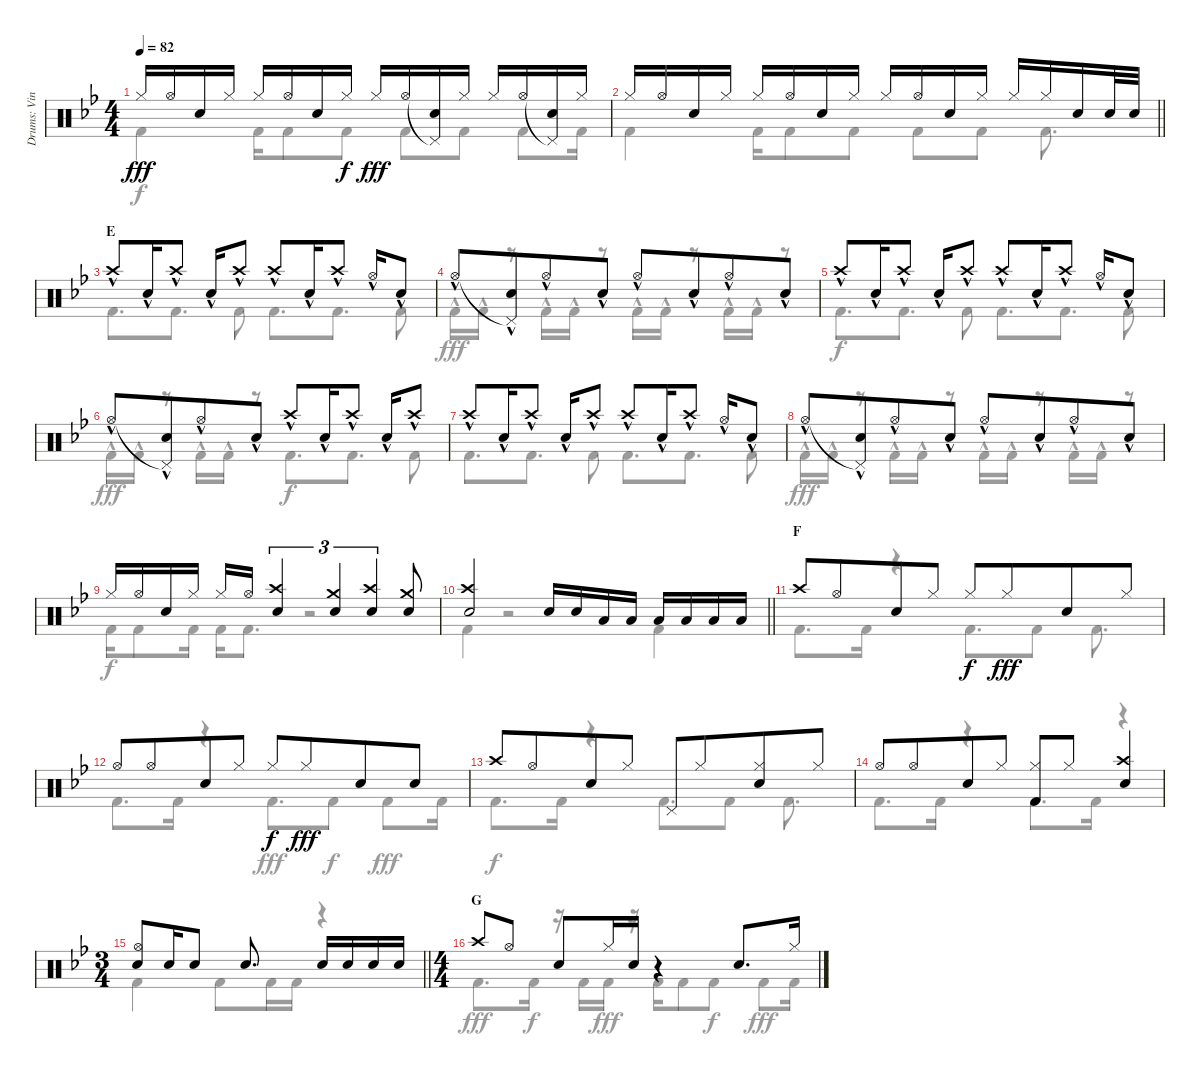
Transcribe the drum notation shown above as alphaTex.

\track ("Drums: Vinny" "Drums: Vin") {instrument percussion}
\staff {score}
\articulation defaults
\voice
\ts (4 4)
\tempo 82
\clef neutral
\ks bb "Hi-Hat (closed)".16{dy fff} "Hi-Hat (open)".16 "Snare (hit) 2".16 "Hi-Hat (closed)".16 "Hi-Hat (closed)".16 "Hi-Hat (open)".16 "Snare (hit) 2".16 "Hi-Hat (closed)".16{dy f} "Hi-Hat (closed)".16{dy fff} "Hi-Hat (open)".16
("Pedal Hi-Hat (hit)"{t} "Snare (hit) 2").16 "Hi-Hat (closed)".16 "Hi-Hat (closed)".16 "Hi-Hat (open)".16 ("Pedal Hi-Hat (hit)"{t} "Snare (hit) 2").16 "Hi-Hat (closed)".16 |
\barLineRight lightlight "Hi-Hat (closed)".16 "Hi-Hat (open)".16 "Snare (hit) 2".16 "Hi-Hat (closed)".16 "Hi-Hat (closed)".16 "Hi-Hat (open)".16 "Snare (hit) 2".16 "Hi-Hat (closed)".16 "Hi-Hat (closed)".16 "Hi-Hat (open)".16 "Snare (hit) 2".16 "Hi-Hat (closed)".16 "Hi-Hat (closed)".16 "Hi-Hat (closed)".16 "Snare (hit) 2".16 "Snare (hit) 2".32 "Snare (hit) 2".32
|
\section ("" "E")
"Crash high (hit)"{hac}.8 "Snare (hit) 2"{hac}.16 "Crash high (hit)"{hac}.8 "Snare (hit) 2"{hac}.16 "Crash high (hit)"{hac}.8 "Crash high (hit)"{hac}.8 "Snare (hit) 2"{hac}.16 "Crash high (hit)"{hac}.8 "Hi-Hat (open)"{hac}.16 "Snare (hit) 2"{hac}.8 |
"Hi-Hat (open)"{hac}.8 ("Pedal Hi-Hat (hit)"{t} "Snare (hit) 2"{hac}).8{beam merge} "Hi-Hat (open)"{hac}.8 "Snare (hit) 2"{hac}.8 "Hi-Hat (open)"{hac}.8 "Snare (hit) 2"{hac}.8{beam merge} "Hi-Hat (open)"{hac}.8 "Snare (hit) 2"{hac}.8 |
"Crash high (hit)"{hac}.8 "Snare (hit) 2"{hac}.16 "Crash high (hit)"{hac}.8 "Snare (hit) 2"{hac}.16 "Crash high (hit)"{hac}.8 "Crash high (hit)"{hac}.8 "Snare (hit) 2"{hac}.16 "Crash high (hit)"{hac}.8 "Hi-Hat (open)"{hac}.16 "Snare (hit) 2"{hac}.8 |
"Hi-Hat (open)"{hac}.8 ("Pedal Hi-Hat (hit)"{t} "Snare (hit) 2"{hac}).8{beam merge} "Hi-Hat (open)"{hac}.8 "Snare (hit) 2"{hac}.8 "Crash high (hit)"{hac}.8 "Snare (hit) 2"{hac}.16 "Crash high (hit)"{hac}.8 "Snare (hit) 2"{hac}.16 "Crash high (hit)"{hac}.8 |
"Crash high (hit)"{hac}.8 "Snare (hit) 2"{hac}.16 "Crash high (hit)"{hac}.8 "Snare (hit) 2"{hac}.16 "Crash high (hit)"{hac}.8 "Crash high (hit)"{hac}.8 "Snare (hit) 2"{hac}.16 "Crash high (hit)"{hac}.8 "Hi-Hat (open)"{hac}.16 "Snare (hit) 2"{hac}.8 |
"Hi-Hat (open)"{hac}.8 ("Pedal Hi-Hat (hit)"{t} "Snare (hit) 2"{hac}).8{beam merge} "Hi-Hat (open)"{hac}.8 "Snare (hit) 2"{hac}.8 "Hi-Hat (open)"{hac}.8 "Snare (hit) 2"{hac}.8{beam merge} "Hi-Hat (open)"{hac}.8 "Snare (hit) 2"{hac}.8 |
"Hi-Hat (closed)".16 "Hi-Hat (open)".16 "Snare (hit) 2".16 "Hi-Hat (closed)".16 "Hi-Hat (closed)".16 "Hi-Hat (open)".16 ("Crash high (hit)" "Snare (hit) 2").4{tu (3 2)} ("Crash medium (hit)" "Snare (hit) 2").4{tu (3 2)} ("Crash high (hit)" "Snare (hit) 2").4{tu (3 2)} ("Crash medium (hit)" "Snare (hit) 2").8 |
\barLineRight lightlight
("Crash high (hit)" "Snare (hit) 2").2 "Snare (hit) 2".16 "Snare (hit) 2".16 "Low Tom (hit)".16 "Low Tom (hit)".16 "Low Tom (hit)".16 "Low Tom (hit)".16 "Low Tom (hit)".16 "Low Tom (hit)".16 |
\section ("" "F")
"Crash high (hit)".8 "Hi-Hat (open)".8{beam merge} "Snare (hit) 2".8 "Hi-Hat (closed)".8 "Hi-Hat (closed)".8{dy f} "Hi-Hat (closed)".8{dy fff beam merge} "Snare (hit) 2".8 "Hi-Hat (closed)".8 |
"Hi-Hat (open)".8 "Hi-Hat (open)".8{beam merge} "Snare (hit) 2".8 "Hi-Hat (closed)".8 "Hi-Hat (closed)".8{dy f} "Hi-Hat (closed)".8{dy fff beam merge} "Snare (hit) 2".8 "Snare (hit) 2".8 |
"Crash high (hit)".8 "Hi-Hat (open)".8{beam merge} "Snare (hit) 2".8 "Hi-Hat (closed)".8 "Pedal Hi-Hat (hit)".8 "Hi-Hat (closed)".8{beam merge} ("Hi-Hat (closed)" "Snare (hit) 2").8 "Hi-Hat (closed)".8 |
"Hi-Hat (open)".8 "Hi-Hat (open)".8{beam merge} "Snare (hit) 2".8 "Hi-Hat (closed)".8 ("Hi-Hat (closed)" "Kick (hit) 2").8 "Hi-Hat (closed)".8 ("Crash high (hit)" "Snare (hit) 2").4 |
\ts (3 4)
\barLineRight lightlight
("Hi-Hat (open)" "Snare (hit) 2").8 "Snare (hit) 2".16 "Snare (hit) 2".8 "Snare (hit) 2".8{d} "Snare (hit) 2".16 "Snare (hit) 2".16 "Snare (hit) 2".16 "Snare (hit) 2".16 |
\ts (4 4)
\section ("" "G")
"Crash high (hit)".8 "Hi-Hat (open)".8 "Snare (hit) 2".8 "Hi-Hat (closed)".16 "Snare (hit) 2".16 r.4 "Snare (hit) 2".8{d} "Hi-Hat (closed)".16
\voice
\clef neutral
\ottava regular
\simile none
\ks bb "Kick (hit) 2".4{dy f} "Kick (hit) 2".16 "Kick (hit) 2".8 "Kick (hit) 2".8 "Kick (hit) 2".8 "Kick (hit) 2".8 "Kick (hit) 2".8 "Kick (hit) 2".16
|
\barLineRight lightlight "Kick (hit) 2".4 "Kick (hit) 2".16 "Kick (hit) 2".8 "Kick (hit) 2".8 "Kick (hit) 2".8 "Kick (hit) 2".8 "Kick (hit) 2".8{d}
|
"Kick (hit) 2".8{d} "Kick (hit) 2".8{d} "Kick (hit) 2".8 "Kick (hit) 2".8{d} "Kick (hit) 2".8{d} "Kick (hit) 2".8 |
"Kick (hit) 2"{hac}.16{dy fff} "Kick (hit) 2"{hac}.16 r.8 "Kick (hit) 2"{hac}.16 "Kick (hit) 2"{hac}.16 r.8 "Kick (hit) 2"{hac}.16 "Kick (hit) 2"{hac}.16 r.8 "Kick (hit) 2"{hac}.16 "Kick (hit) 2"{hac}.16 r.8 |
"Kick (hit) 2".8{d dy f} "Kick (hit) 2".8{d} "Kick (hit) 2".8 "Kick (hit) 2".8{d} "Kick (hit) 2".8{d} "Kick (hit) 2".8 |
"Kick (hit) 2"{hac}.16{dy fff} "Kick (hit) 2"{hac}.16 r.8 "Kick (hit) 2"{hac}.16 "Kick (hit) 2"{hac}.16 r.8 "Kick (hit) 2".8{d dy f} "Kick (hit) 2".8{d} "Kick (hit) 2".8 |
"Kick (hit) 2".8{d} "Kick (hit) 2".8{d} "Kick (hit) 2".8 "Kick (hit) 2".8{d} "Kick (hit) 2".8{d} "Kick (hit) 2".8 |
"Kick (hit) 2"{hac}.16{dy fff} "Kick (hit) 2"{hac}.16 r.8 "Kick (hit) 2"{hac}.16 "Kick (hit) 2"{hac}.16 r.8 "Kick (hit) 2"{hac}.16 "Kick (hit) 2"{hac}.16 r.8 "Kick (hit) 2"{hac}.16 "Kick (hit) 2"{hac}.16 r.8 |
"Kick (hit) 2".16{dy f} "Kick (hit) 2".8 "Kick (hit) 2".16 "Kick (hit) 2".16 "Kick (hit) 2".8{d} r.2 |
\barLineRight lightlight "Kick (hit) 2".4
r.2 "Kick (hit) 2".4 |
"Kick (hit) 2".8{d} "Kick (hit) 2".16 r.4 "Kick (hit) 2".8{d} "Kick (hit) 2".8 "Kick (hit) 2".8{d} |
"Kick (hit) 2".8{d} "Kick (hit) 2".16 r.4 "Kick (hit) 2".8{d dy fff} "Kick (hit) 2".8{dy f} "Kick (hit) 2".8{dy fff} "Kick (hit) 2".16 |
"Kick (hit) 2".8{d dy f} "Kick (hit) 2".16 r.4 "Kick (hit) 2".8{d} "Kick (hit) 2".8 "Kick (hit) 2".8{d} |
"Kick (hit) 2".8{d} "Kick (hit) 2".16 r.4 "Kick (hit) 2".8{d} "Kick (hit) 2".16 r.4 |
\barLineRight lightlight "Kick (hit) 2".4 "Kick (hit) 2".8 "Kick (hit) 2".16 "Kick (hit) 2".16
r.4 |
"Kick (hit) 2".8{d dy fff} "Kick (hit) 2".16{dy f} r.16 "Kick (hit) 2".16 "Kick (hit) 2".16{dy fff} r.16 "Kick (hit) 2".16 "Kick (hit) 2".8 "Kick (hit) 2".8{dy f} "Kick (hit) 2".8{dy fff} "Kick (hit) 2".16
